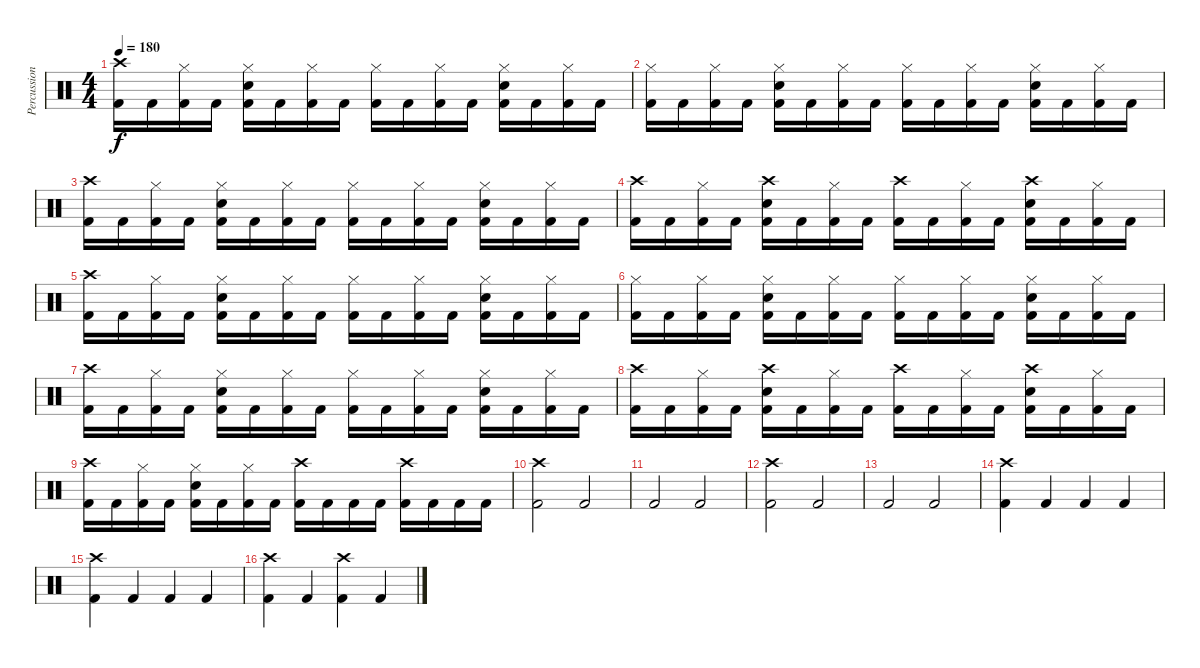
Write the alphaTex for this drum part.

\track ("Percussion" "Percussion") {instrument percussion}
\staff {score}
\articulation defaults
\ts (4 4)
\tempo 180
\clef neutral
\ks c
("Crash high (hit)" "Kick (hit) 2").16{dy f} "Kick (hit) 2".16 ("Hi-Hat (closed)" "Kick (hit) 2").16 "Kick (hit) 2".16 ("Hi-Hat (closed)" "Snare (hit) 2" "Kick (hit) 2").16 "Kick (hit) 2".16 ("Hi-Hat (closed)" "Kick (hit) 2").16 "Kick (hit) 2".16 ("Hi-Hat (closed)" "Kick (hit) 2").16 "Kick (hit) 2".16 ("Hi-Hat (closed)" "Kick (hit) 2").16 "Kick (hit) 2".16 ("Hi-Hat (closed)" "Snare (hit) 2" "Kick (hit) 2").16 "Kick (hit) 2".16 ("Hi-Hat (closed)" "Kick (hit) 2").16 "Kick (hit) 2".16 |
("Hi-Hat (closed)" "Kick (hit) 2").16 "Kick (hit) 2".16 ("Hi-Hat (closed)" "Kick (hit) 2").16 "Kick (hit) 2".16 ("Hi-Hat (closed)" "Snare (hit) 2" "Kick (hit) 2").16 "Kick (hit) 2".16 ("Hi-Hat (closed)" "Kick (hit) 2").16 "Kick (hit) 2".16 ("Hi-Hat (closed)" "Kick (hit) 2").16 "Kick (hit) 2".16 ("Hi-Hat (closed)" "Kick (hit) 2").16 "Kick (hit) 2".16 ("Hi-Hat (closed)" "Snare (hit) 2" "Kick (hit) 2").16 "Kick (hit) 2".16 ("Hi-Hat (closed)" "Kick (hit) 2").16 "Kick (hit) 2".16 |
("Crash high (hit)" "Kick (hit) 2").16 "Kick (hit) 2".16 ("Hi-Hat (closed)" "Kick (hit) 2").16 "Kick (hit) 2".16 ("Hi-Hat (closed)" "Snare (hit) 2" "Kick (hit) 2").16 "Kick (hit) 2".16 ("Hi-Hat (closed)" "Kick (hit) 2").16 "Kick (hit) 2".16 ("Hi-Hat (closed)" "Kick (hit) 2").16 "Kick (hit) 2".16 ("Hi-Hat (closed)" "Kick (hit) 2").16 "Kick (hit) 2".16 ("Hi-Hat (closed)" "Snare (hit) 2" "Kick (hit) 2").16 "Kick (hit) 2".16 ("Hi-Hat (closed)" "Kick (hit) 2").16 "Kick (hit) 2".16 |
("Crash high (hit)" "Kick (hit) 2").16 "Kick (hit) 2".16 ("Hi-Hat (closed)" "Kick (hit) 2").16 "Kick (hit) 2".16 ("Crash high (hit)" "Snare (hit) 2" "Kick (hit) 2").16 "Kick (hit) 2".16 ("Hi-Hat (closed)" "Kick (hit) 2").16 "Kick (hit) 2".16 ("Crash high (hit)" "Kick (hit) 2").16 "Kick (hit) 2".16 ("Hi-Hat (closed)" "Kick (hit) 2").16 "Kick (hit) 2".16 ("Crash high (hit)" "Snare (hit) 2" "Kick (hit) 2").16 "Kick (hit) 2".16 ("Hi-Hat (closed)" "Kick (hit) 2").16 "Kick (hit) 2".16 |
("Crash high (hit)" "Kick (hit) 2").16 "Kick (hit) 2".16 ("Hi-Hat (closed)" "Kick (hit) 2").16 "Kick (hit) 2".16 ("Hi-Hat (closed)" "Snare (hit) 2" "Kick (hit) 2").16 "Kick (hit) 2".16 ("Hi-Hat (closed)" "Kick (hit) 2").16 "Kick (hit) 2".16 ("Hi-Hat (closed)" "Kick (hit) 2").16 "Kick (hit) 2".16 ("Hi-Hat (closed)" "Kick (hit) 2").16 "Kick (hit) 2".16 ("Hi-Hat (closed)" "Snare (hit) 2" "Kick (hit) 2").16 "Kick (hit) 2".16 ("Hi-Hat (closed)" "Kick (hit) 2").16 "Kick (hit) 2".16 |
("Hi-Hat (closed)" "Kick (hit) 2").16 "Kick (hit) 2".16 ("Hi-Hat (closed)" "Kick (hit) 2").16 "Kick (hit) 2".16 ("Hi-Hat (closed)" "Snare (hit) 2" "Kick (hit) 2").16 "Kick (hit) 2".16 ("Hi-Hat (closed)" "Kick (hit) 2").16 "Kick (hit) 2".16 ("Hi-Hat (closed)" "Kick (hit) 2").16 "Kick (hit) 2".16 ("Hi-Hat (closed)" "Kick (hit) 2").16 "Kick (hit) 2".16 ("Hi-Hat (closed)" "Snare (hit) 2" "Kick (hit) 2").16 "Kick (hit) 2".16 ("Hi-Hat (closed)" "Kick (hit) 2").16 "Kick (hit) 2".16 |
("Crash high (hit)" "Kick (hit) 2").16 "Kick (hit) 2".16 ("Hi-Hat (closed)" "Kick (hit) 2").16 "Kick (hit) 2".16 ("Hi-Hat (closed)" "Snare (hit) 2" "Kick (hit) 2").16 "Kick (hit) 2".16 ("Hi-Hat (closed)" "Kick (hit) 2").16 "Kick (hit) 2".16 ("Hi-Hat (closed)" "Kick (hit) 2").16 "Kick (hit) 2".16 ("Hi-Hat (closed)" "Kick (hit) 2").16 "Kick (hit) 2".16 ("Hi-Hat (closed)" "Snare (hit) 2" "Kick (hit) 2").16 "Kick (hit) 2".16 ("Hi-Hat (closed)" "Kick (hit) 2").16 "Kick (hit) 2".16 |
("Crash high (hit)" "Kick (hit) 2").16 "Kick (hit) 2".16 ("Hi-Hat (closed)" "Kick (hit) 2").16 "Kick (hit) 2".16 ("Crash high (hit)" "Snare (hit) 2" "Kick (hit) 2").16 "Kick (hit) 2".16 ("Hi-Hat (closed)" "Kick (hit) 2").16 "Kick (hit) 2".16 ("Crash high (hit)" "Kick (hit) 2").16 "Kick (hit) 2".16 ("Hi-Hat (closed)" "Kick (hit) 2").16 "Kick (hit) 2".16 ("Crash high (hit)" "Snare (hit) 2" "Kick (hit) 2").16 "Kick (hit) 2".16 ("Hi-Hat (closed)" "Kick (hit) 2").16 "Kick (hit) 2".16 |
("Crash high (hit)" "Kick (hit) 2").16 "Kick (hit) 2".16 ("Hi-Hat (closed)" "Kick (hit) 2").16 "Kick (hit) 2".16 ("Hi-Hat (closed)" "Snare (hit) 2" "Kick (hit) 2").16 "Kick (hit) 2".16 ("Hi-Hat (closed)" "Kick (hit) 2").16 "Kick (hit) 2".16 ("Crash high (hit)" "Kick (hit) 2").16 "Kick (hit) 2".16 "Kick (hit) 2".16 "Kick (hit) 2".16 ("Crash high (hit)" "Kick (hit) 2").16 "Kick (hit) 2".16 "Kick (hit) 2".16 "Kick (hit) 2".16 |
("Crash high (hit)" "Kick (hit) 2").2 "Kick (hit) 2".2 |
"Kick (hit) 2".2 "Kick (hit) 2".2 |
("Crash high (hit)" "Kick (hit) 2").2 "Kick (hit) 2".2 |
"Kick (hit) 2".2 "Kick (hit) 2".2 |
("Crash high (hit)" "Kick (hit) 2").4 "Kick (hit) 2".4 "Kick (hit) 2".4 "Kick (hit) 2".4 |
("Crash high (hit)" "Kick (hit) 2").4 "Kick (hit) 2".4 "Kick (hit) 2".4 "Kick (hit) 2".4 |
("Crash high (hit)" "Kick (hit) 2").4 "Kick (hit) 2".4 ("Crash high (hit)" "Kick (hit) 2").4 "Kick (hit) 2".4
